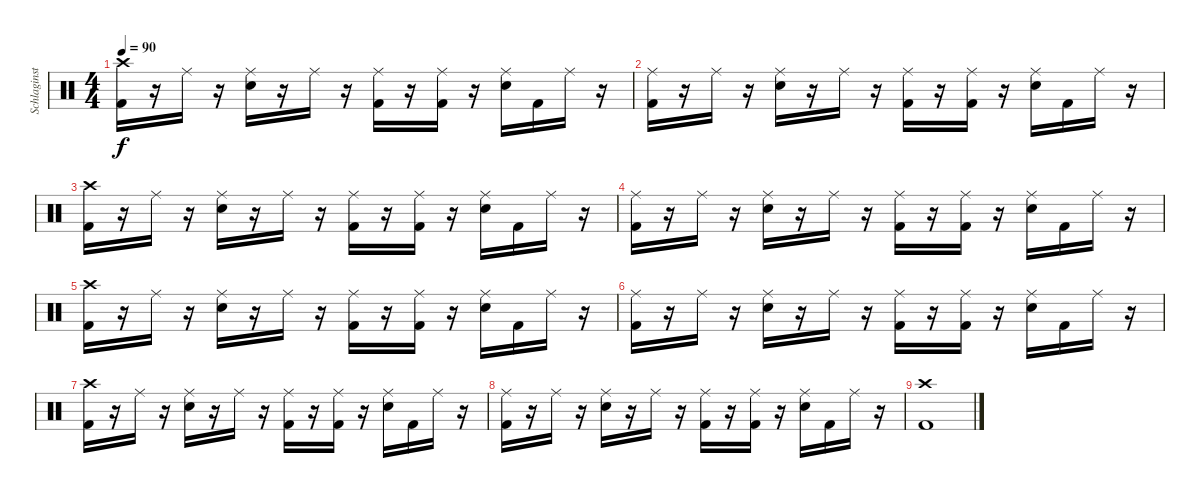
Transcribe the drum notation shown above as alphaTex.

\track ("Schlaginstrumente - Auswahl" "Schlaginst") {instrument percussion}
\staff {score}
\articulation defaults
\ts (4 4)
\tempo 90
\clef neutral
\ks c
("Crash high (hit)" "Kick (hit) 2").16{dy f} r.16 "Ride (middle)".16 r.16 ("Ride (middle)" "Snare (hit) 2").16 r.16 "Ride (middle)".16 r.16 ("Ride (middle)" "Kick (hit) 2").16 r.16 ("Ride (middle)" "Kick (hit) 2").16 r.16 ("Ride (middle)" "Snare (hit) 2").16 "Kick (hit) 2".16 "Ride (middle)".16 r.16 |
("Ride (middle)" "Kick (hit) 2").16 r.16 "Ride (middle)".16 r.16 ("Ride (middle)" "Snare (hit) 2").16 r.16 "Ride (middle)".16 r.16 ("Ride (middle)" "Kick (hit) 2").16 r.16 ("Ride (middle)" "Kick (hit) 2").16 r.16 ("Ride (middle)" "Snare (hit) 2").16 "Kick (hit) 2".16 "Ride (middle)".16 r.16 |
("Crash high (hit)" "Kick (hit) 2").16 r.16 "Ride (middle)".16 r.16 ("Ride (middle)" "Snare (hit) 2").16 r.16 "Ride (middle)".16 r.16 ("Ride (middle)" "Kick (hit) 2").16 r.16 ("Ride (middle)" "Kick (hit) 2").16 r.16 ("Ride (middle)" "Snare (hit) 2").16 "Kick (hit) 2".16 "Ride (middle)".16 r.16 |
("Ride (middle)" "Kick (hit) 2").16 r.16 "Ride (middle)".16 r.16 ("Ride (middle)" "Snare (hit) 2").16 r.16 "Ride (middle)".16 r.16 ("Ride (middle)" "Kick (hit) 2").16 r.16 ("Ride (middle)" "Kick (hit) 2").16 r.16 ("Ride (middle)" "Snare (hit) 2").16 "Kick (hit) 2".16 "Ride (middle)".16 r.16 |
("Crash high (hit)" "Kick (hit) 2").16 r.16 "Ride (middle)".16 r.16 ("Ride (middle)" "Snare (hit) 2").16 r.16 "Ride (middle)".16 r.16 ("Ride (middle)" "Kick (hit) 2").16 r.16 ("Ride (middle)" "Kick (hit) 2").16 r.16 ("Ride (middle)" "Snare (hit) 2").16 "Kick (hit) 2".16 "Ride (middle)".16 r.16 |
("Ride (middle)" "Kick (hit) 2").16 r.16 "Ride (middle)".16 r.16 ("Ride (middle)" "Snare (hit) 2").16 r.16 "Ride (middle)".16 r.16 ("Ride (middle)" "Kick (hit) 2").16 r.16 ("Ride (middle)" "Kick (hit) 2").16 r.16 ("Ride (middle)" "Snare (hit) 2").16 "Kick (hit) 2".16 "Ride (middle)".16 r.16 |
("Crash high (hit)" "Kick (hit) 2").16 r.16 "Ride (middle)".16 r.16 ("Ride (middle)" "Snare (hit) 2").16 r.16 "Ride (middle)".16 r.16 ("Ride (middle)" "Kick (hit) 2").16 r.16 ("Ride (middle)" "Kick (hit) 2").16 r.16 ("Ride (middle)" "Snare (hit) 2").16 "Kick (hit) 2".16 "Ride (middle)".16 r.16 |
("Ride (middle)" "Kick (hit) 2").16 r.16 "Ride (middle)".16 r.16 ("Ride (middle)" "Snare (hit) 2").16 r.16 "Ride (middle)".16 r.16 ("Ride (middle)" "Kick (hit) 2").16 r.16 ("Ride (middle)" "Kick (hit) 2").16 r.16 ("Ride (middle)" "Snare (hit) 2").16 "Kick (hit) 2".16 "Ride (middle)".16 r.16 |
("Crash high (hit)" "Kick (hit) 2").1
